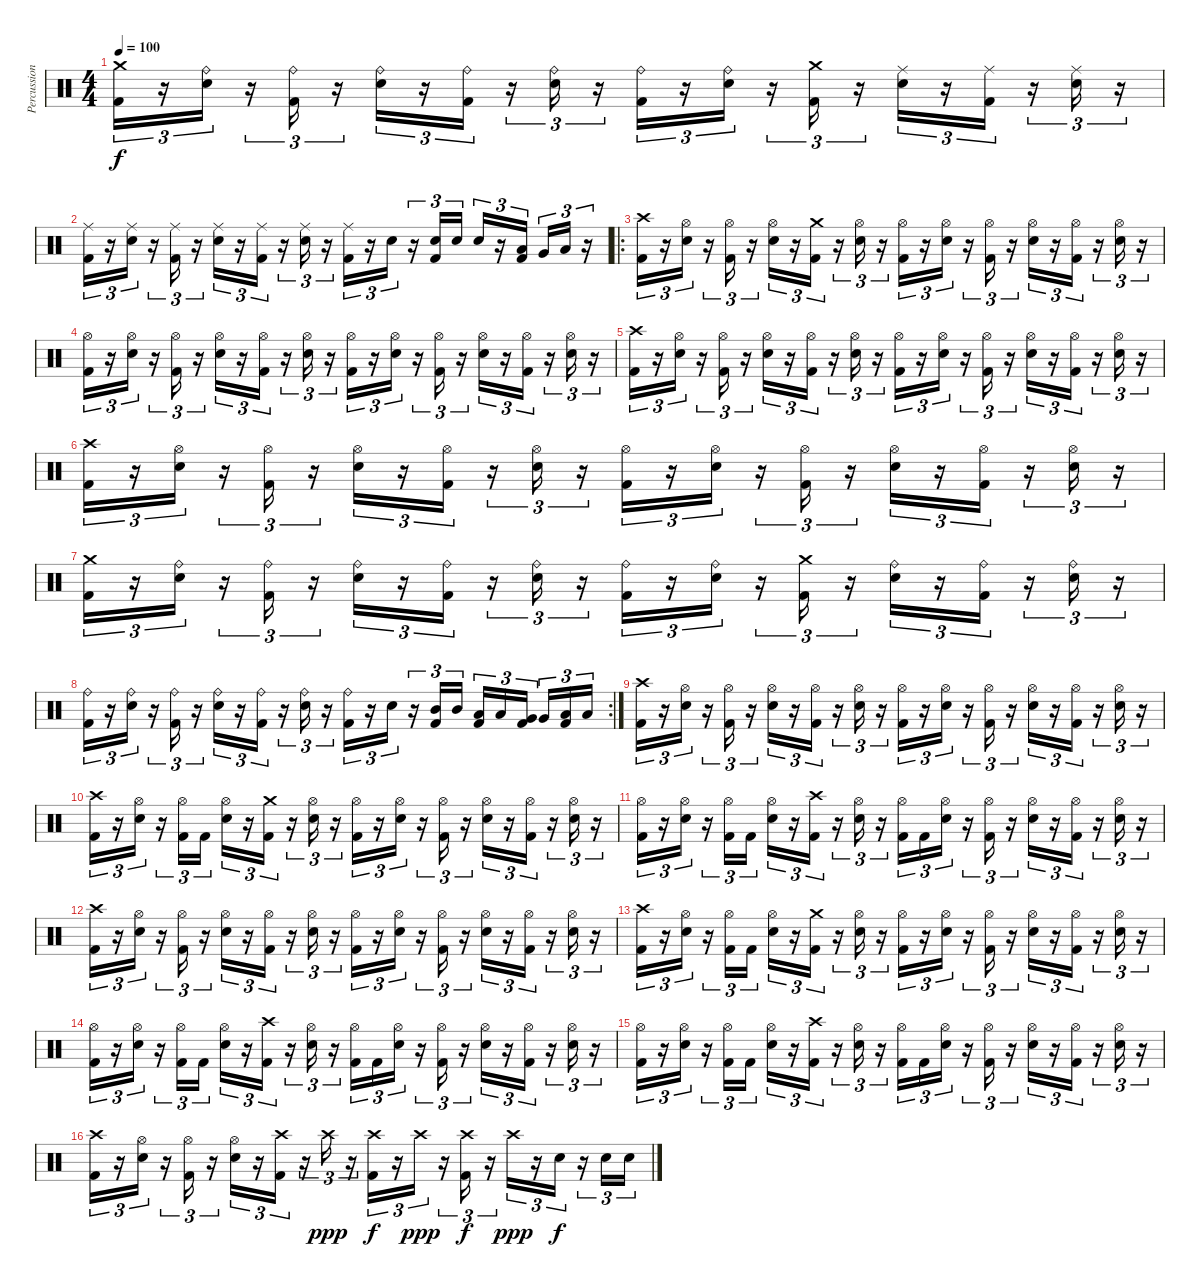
\track ("Percussion" "Percussion") {instrument percussion}
\staff {score}
\articulation defaults
\ts (4 4)
\tempo 100
\clef neutral
\ks c
("Crash medium (hit)" "Kick (hit) 2").16{tu (3 2) dy f} r.16{tu (3 2)} ("Ride (bell)" "Snare (hit) 2").16{tu (3 2)} r.16{tu (3 2)} ("Kick (hit) 2" "Ride (bell)").16{tu (3 2)} r.16{tu (3 2)} ("Snare (hit) 2" "Ride (bell)").16{tu (3 2)} r.16{tu (3 2)} ("Kick (hit) 2" "Ride (bell)").16{tu (3 2)} r.16{tu (3 2)} ("Ride (bell)" "Snare (hit) 2").16{tu (3 2)} r.16{tu (3 2)} ("Kick (hit) 2" "Ride (bell)").16{tu (3 2)} r.16{tu (3 2)} ("Ride (bell)" "Snare (hit) 2").16{tu (3 2)} r.16{tu (3 2)} ("Kick (hit) 2" "Crash medium (hit)").16{tu (3 2)} r.16{tu (3 2)} ("Ride (middle)" "Snare (hit) 2").16{tu (3 2)} r.16{tu (3 2)} ("Kick (hit) 2" "Ride (middle)").16{tu (3 2)} r.16{tu (3 2)} ("Ride (middle)" "Snare (hit) 2").16{tu (3 2)} r.16{tu (3 2)} |
("Ride (middle)" "Kick (hit) 2").16{tu (3 2)} r.16{tu (3 2)} ("Ride (middle)" "Snare (hit) 2").16{tu (3 2)} r.16{tu (3 2)} ("Kick (hit) 2" "Ride (middle)").16{tu (3 2)} r.16{tu (3 2)} ("Snare (hit) 2" "Ride (middle)").16{tu (3 2)} r.16{tu (3 2)} ("Kick (hit) 2" "Ride (middle)").16{tu (3 2)} r.16{tu (3 2)} ("Ride (middle)" "Snare (hit) 2").16{tu (3 2)} r.16{tu (3 2)} ("Kick (hit) 2" "Ride (middle)").16{tu (3 2)} r.16{tu (3 2)} "Snare (hit) 2".16{tu (3 2)} r.16{tu (3 2)} ("Snare (hit) 2" "Kick (hit) 2").16{tu (3 2)} "Snare (hit) 2".16{tu (3 2)} "Snare (hit) 2".16{tu (3 2)} r.16{tu (3 2)} ("Low Tom (hit)" "Kick (hit) 2").16{tu (3 2) beam splitsecondary} "Very Low Tom (hit)".16{tu (3 2)} "Low Floor Tom (hit)".16{tu (3 2)} r.16{tu (3 2)} |
\ro
("Crash high (hit)" "Kick (hit) 2").16{tu (3 2)} r.16{tu (3 2)} ("Hi-Hat (open)" "Snare (hit) 2").16{tu (3 2)} r.16{tu (3 2)} ("Kick (hit) 2" "Hi-Hat (open)").16{tu (3 2)} r.16{tu (3 2)} ("Snare (hit) 2" "Hi-Hat (open)").16{tu (3 2)} r.16{tu (3 2)} ("Kick (hit) 2" "Crash medium (hit)").16{tu (3 2)} r.16{tu (3 2)} ("Hi-Hat (open)" "Snare (hit) 2").16{tu (3 2)} r.16{tu (3 2)} ("Kick (hit) 2" "Hi-Hat (open)").16{tu (3 2)} r.16{tu (3 2)} ("Hi-Hat (open)" "Snare (hit) 2").16{tu (3 2)} r.16{tu (3 2)} ("Kick (hit) 2" "Hi-Hat (open)").16{tu (3 2)} r.16{tu (3 2)} ("Hi-Hat (open)" "Snare (hit) 2").16{tu (3 2)} r.16{tu (3 2)} ("Kick (hit) 2" "Hi-Hat (open)").16{tu (3 2)} r.16{tu (3 2)} ("Hi-Hat (open)" "Snare (hit) 2").16{tu (3 2)} r.16{tu (3 2)} |
("Hi-Hat (open)" "Kick (hit) 2").16{tu (3 2)} r.16{tu (3 2)} ("Hi-Hat (open)" "Snare (hit) 2").16{tu (3 2)} r.16{tu (3 2)} ("Kick (hit) 2" "Hi-Hat (open)").16{tu (3 2)} r.16{tu (3 2)} ("Snare (hit) 2" "Hi-Hat (open)").16{tu (3 2)} r.16{tu (3 2)} ("Kick (hit) 2" "Hi-Hat (open)").16{tu (3 2)} r.16{tu (3 2)} ("Hi-Hat (open)" "Snare (hit) 2").16{tu (3 2)} r.16{tu (3 2)} ("Kick (hit) 2" "Hi-Hat (open)").16{tu (3 2)} r.16{tu (3 2)} ("Hi-Hat (open)" "Snare (hit) 2").16{tu (3 2)} r.16{tu (3 2)} ("Kick (hit) 2" "Hi-Hat (open)").16{tu (3 2)} r.16{tu (3 2)} ("Hi-Hat (open)" "Snare (hit) 2").16{tu (3 2)} r.16{tu (3 2)} ("Kick (hit) 2" "Hi-Hat (open)").16{tu (3 2)} r.16{tu (3 2)} ("Hi-Hat (open)" "Snare (hit) 2").16{tu (3 2)} r.16{tu (3 2)} |
("Crash high (hit)" "Kick (hit) 2").16{tu (3 2)} r.16{tu (3 2)} ("Hi-Hat (open)" "Snare (hit) 2").16{tu (3 2)} r.16{tu (3 2)} ("Kick (hit) 2" "Hi-Hat (open)").16{tu (3 2)} r.16{tu (3 2)} ("Snare (hit) 2" "Hi-Hat (open)").16{tu (3 2)} r.16{tu (3 2)} ("Kick (hit) 2" "Hi-Hat (open)").16{tu (3 2)} r.16{tu (3 2)} ("Hi-Hat (open)" "Snare (hit) 2").16{tu (3 2)} r.16{tu (3 2)} ("Kick (hit) 2" "Hi-Hat (open)").16{tu (3 2)} r.16{tu (3 2)} ("Hi-Hat (open)" "Snare (hit) 2").16{tu (3 2)} r.16{tu (3 2)} ("Kick (hit) 2" "Hi-Hat (open)").16{tu (3 2)} r.16{tu (3 2)} ("Hi-Hat (open)" "Snare (hit) 2").16{tu (3 2)} r.16{tu (3 2)} ("Kick (hit) 2" "Hi-Hat (open)").16{tu (3 2)} r.16{tu (3 2)} ("Hi-Hat (open)" "Snare (hit) 2").16{tu (3 2)} r.16{tu (3 2)} |
("Crash high (hit)" "Kick (hit) 2").16{tu (3 2)} r.16{tu (3 2)} ("Hi-Hat (open)" "Snare (hit) 2").16{tu (3 2)} r.16{tu (3 2)} ("Kick (hit) 2" "Hi-Hat (open)").16{tu (3 2)} r.16{tu (3 2)} ("Snare (hit) 2" "Hi-Hat (open)").16{tu (3 2)} r.16{tu (3 2)} ("Kick (hit) 2" "Hi-Hat (open)").16{tu (3 2)} r.16{tu (3 2)} ("Hi-Hat (open)" "Snare (hit) 2").16{tu (3 2)} r.16{tu (3 2)} ("Kick (hit) 2" "Hi-Hat (open)").16{tu (3 2)} r.16{tu (3 2)} ("Hi-Hat (open)" "Snare (hit) 2").16{tu (3 2)} r.16{tu (3 2)} ("Kick (hit) 2" "Hi-Hat (open)").16{tu (3 2)} r.16{tu (3 2)} ("Hi-Hat (open)" "Snare (hit) 2").16{tu (3 2)} r.16{tu (3 2)} ("Kick (hit) 2" "Hi-Hat (open)").16{tu (3 2)} r.16{tu (3 2)} ("Hi-Hat (open)" "Snare (hit) 2").16{tu (3 2)} r.16{tu (3 2)} |
("Crash medium (hit)" "Kick (hit) 2").16{tu (3 2)} r.16{tu (3 2)} ("Ride (bell)" "Snare (hit) 2").16{tu (3 2)} r.16{tu (3 2)} ("Kick (hit) 2" "Ride (bell)").16{tu (3 2)} r.16{tu (3 2)} ("Snare (hit) 2" "Ride (bell)").16{tu (3 2)} r.16{tu (3 2)} ("Kick (hit) 2" "Ride (bell)").16{tu (3 2)} r.16{tu (3 2)} ("Ride (bell)" "Snare (hit) 2").16{tu (3 2)} r.16{tu (3 2)} ("Kick (hit) 2" "Ride (bell)").16{tu (3 2)} r.16{tu (3 2)} ("Ride (bell)" "Snare (hit) 2").16{tu (3 2)} r.16{tu (3 2)} ("Kick (hit) 2" "Crash medium (hit)").16{tu (3 2)} r.16{tu (3 2)} ("Ride (bell)" "Snare (hit) 2").16{tu (3 2)} r.16{tu (3 2)} ("Kick (hit) 2" "Ride (bell)").16{tu (3 2)} r.16{tu (3 2)} ("Ride (bell)" "Snare (hit) 2").16{tu (3 2)} r.16{tu (3 2)} |
\rc 2
("Ride (bell)" "Kick (hit) 2").16{tu (3 2)} r.16{tu (3 2)} ("Ride (bell)" "Snare (hit) 2").16{tu (3 2)} r.16{tu (3 2)} ("Kick (hit) 2" "Ride (bell)").16{tu (3 2)} r.16{tu (3 2)} ("Snare (hit) 2" "Ride (bell)").16{tu (3 2)} r.16{tu (3 2)} ("Kick (hit) 2" "Ride (bell)").16{tu (3 2)} r.16{tu (3 2)} ("Ride (bell)" "Snare (hit) 2").16{tu (3 2)} r.16{tu (3 2)} ("Kick (hit) 2" "Ride (bell)").16{tu (3 2)} r.16{tu (3 2)} "Snare (hit) 2".16{tu (3 2)} r.16{tu (3 2)} ("Mid Tom (hit)" "Kick (hit) 2").16{tu (3 2)} "Mid Tom (hit)".16{tu (3 2)} ("Low Tom (hit)" "Kick (hit) 2").16{tu (3 2)} "Low Tom (hit)".16{tu (3 2)} ("Very Low Tom (hit)" "Kick (hit) 2").16{tu (3 2) beam splitsecondary} "Very Low Tom (hit)".16{tu (3 2)} ("Low Floor Tom (hit)" "Kick (hit) 2").16{tu (3 2)} "Low Floor Tom (hit)".16{tu (3 2)} |
("Crash high (hit)" "Kick (hit) 2").16{tu (3 2)} r.16{tu (3 2)} ("Hi-Hat (open)" "Snare (hit) 2").16{tu (3 2)} r.16{tu (3 2)} ("Kick (hit) 2" "Hi-Hat (open)").16{tu (3 2)} r.16{tu (3 2)} ("Snare (hit) 2" "Hi-Hat (open)").16{tu (3 2)} r.16{tu (3 2)} ("Kick (hit) 2" "Hi-Hat (open)").16{tu (3 2)} r.16{tu (3 2)} ("Hi-Hat (open)" "Snare (hit) 2").16{tu (3 2)} r.16{tu (3 2)} ("Kick (hit) 2" "Hi-Hat (open)").16{tu (3 2)} r.16{tu (3 2)} ("Hi-Hat (open)" "Snare (hit) 2").16{tu (3 2)} r.16{tu (3 2)} ("Kick (hit) 2" "Hi-Hat (open)").16{tu (3 2)} r.16{tu (3 2)} ("Hi-Hat (open)" "Snare (hit) 2").16{tu (3 2)} r.16{tu (3 2)} ("Kick (hit) 2" "Hi-Hat (open)").16{tu (3 2)} r.16{tu (3 2)} ("Hi-Hat (open)" "Snare (hit) 2").16{tu (3 2)} r.16{tu (3 2)} |
("Crash high (hit)" "Kick (hit) 2").16{tu (3 2)} r.16{tu (3 2)} ("Hi-Hat (open)" "Snare (hit) 2").16{tu (3 2)} r.16{tu (3 2)} ("Kick (hit) 2" "Hi-Hat (open)").16{tu (3 2)} "Kick (hit) 2".16{tu (3 2)} ("Snare (hit) 2" "Hi-Hat (open)").16{tu (3 2)} r.16{tu (3 2)} ("Kick (hit) 2" "Crash medium (hit)").16{tu (3 2)} r.16{tu (3 2)} ("Hi-Hat (open)" "Snare (hit) 2").16{tu (3 2)} r.16{tu (3 2)} ("Kick (hit) 2" "Hi-Hat (open)").16{tu (3 2)} r.16{tu (3 2)} ("Hi-Hat (open)" "Snare (hit) 2").16{tu (3 2)} r.16{tu (3 2)} ("Kick (hit) 2" "Hi-Hat (open)").16{tu (3 2)} r.16{tu (3 2)} ("Hi-Hat (open)" "Snare (hit) 2").16{tu (3 2)} r.16{tu (3 2)} ("Kick (hit) 2" "Hi-Hat (open)").16{tu (3 2)} r.16{tu (3 2)} ("Hi-Hat (open)" "Snare (hit) 2").16{tu (3 2)} r.16{tu (3 2)} |
("Hi-Hat (open)" "Kick (hit) 2").16{tu (3 2)} r.16{tu (3 2)} ("Hi-Hat (open)" "Snare (hit) 2").16{tu (3 2)} r.16{tu (3 2)} ("Kick (hit) 2" "Hi-Hat (open)").16{tu (3 2)} "Kick (hit) 2".16{tu (3 2)} ("Snare (hit) 2" "Hi-Hat (open)").16{tu (3 2)} r.16{tu (3 2)} ("Crash high (hit)" "Kick (hit) 2").16{tu (3 2)} r.16{tu (3 2)} ("Hi-Hat (open)" "Snare (hit) 2").16{tu (3 2)} r.16{tu (3 2)} ("Kick (hit) 2" "Hi-Hat (open)").16{tu (3 2)} "Kick (hit) 2".16{tu (3 2)} ("Hi-Hat (open)" "Snare (hit) 2").16{tu (3 2)} r.16{tu (3 2)} ("Kick (hit) 2" "Hi-Hat (open)").16{tu (3 2)} r.16{tu (3 2)} ("Hi-Hat (open)" "Snare (hit) 2").16{tu (3 2)} r.16{tu (3 2)} ("Kick (hit) 2" "Hi-Hat (open)").16{tu (3 2)} r.16{tu (3 2)} ("Hi-Hat (open)" "Snare (hit) 2").16{tu (3 2)} r.16{tu (3 2)} |
("Crash high (hit)" "Kick (hit) 2").16{tu (3 2)} r.16{tu (3 2)} ("Hi-Hat (open)" "Snare (hit) 2").16{tu (3 2)} r.16{tu (3 2)} ("Kick (hit) 2" "Hi-Hat (open)").16{tu (3 2)} r.16{tu (3 2)} ("Snare (hit) 2" "Hi-Hat (open)").16{tu (3 2)} r.16{tu (3 2)} ("Kick (hit) 2" "Hi-Hat (open)").16{tu (3 2)} r.16{tu (3 2)} ("Hi-Hat (open)" "Snare (hit) 2").16{tu (3 2)} r.16{tu (3 2)} ("Kick (hit) 2" "Hi-Hat (open)").16{tu (3 2)} r.16{tu (3 2)} ("Hi-Hat (open)" "Snare (hit) 2").16{tu (3 2)} r.16{tu (3 2)} ("Kick (hit) 2" "Hi-Hat (open)").16{tu (3 2)} r.16{tu (3 2)} ("Hi-Hat (open)" "Snare (hit) 2").16{tu (3 2)} r.16{tu (3 2)} ("Kick (hit) 2" "Hi-Hat (open)").16{tu (3 2)} r.16{tu (3 2)} ("Hi-Hat (open)" "Snare (hit) 2").16{tu (3 2)} r.16{tu (3 2)} |
("Crash high (hit)" "Kick (hit) 2").16{tu (3 2)} r.16{tu (3 2)} ("Hi-Hat (open)" "Snare (hit) 2").16{tu (3 2)} r.16{tu (3 2)} ("Kick (hit) 2" "Hi-Hat (open)").16{tu (3 2)} "Kick (hit) 2".16{tu (3 2)} ("Snare (hit) 2" "Hi-Hat (open)").16{tu (3 2)} r.16{tu (3 2)} ("Kick (hit) 2" "Crash medium (hit)").16{tu (3 2)} r.16{tu (3 2)} ("Hi-Hat (open)" "Snare (hit) 2").16{tu (3 2)} r.16{tu (3 2)} ("Kick (hit) 2" "Hi-Hat (open)").16{tu (3 2)} r.16{tu (3 2)} ("Hi-Hat (open)" "Snare (hit) 2").16{tu (3 2)} r.16{tu (3 2)} ("Kick (hit) 2" "Hi-Hat (open)").16{tu (3 2)} r.16{tu (3 2)} ("Hi-Hat (open)" "Snare (hit) 2").16{tu (3 2)} r.16{tu (3 2)} ("Kick (hit) 2" "Hi-Hat (open)").16{tu (3 2)} r.16{tu (3 2)} ("Hi-Hat (open)" "Snare (hit) 2").16{tu (3 2)} r.16{tu (3 2)} |
("Hi-Hat (open)" "Kick (hit) 2").16{tu (3 2)} r.16{tu (3 2)} ("Hi-Hat (open)" "Snare (hit) 2").16{tu (3 2)} r.16{tu (3 2)} ("Kick (hit) 2" "Hi-Hat (open)").16{tu (3 2)} "Kick (hit) 2".16{tu (3 2)} ("Snare (hit) 2" "Hi-Hat (open)").16{tu (3 2)} r.16{tu (3 2)} ("Crash high (hit)" "Kick (hit) 2").16{tu (3 2)} r.16{tu (3 2)} ("Hi-Hat (open)" "Snare (hit) 2").16{tu (3 2)} r.16{tu (3 2)} ("Kick (hit) 2" "Hi-Hat (open)").16{tu (3 2)} "Kick (hit) 2".16{tu (3 2)} ("Hi-Hat (open)" "Snare (hit) 2").16{tu (3 2)} r.16{tu (3 2)} ("Kick (hit) 2" "Hi-Hat (open)").16{tu (3 2)} r.16{tu (3 2)} ("Hi-Hat (open)" "Snare (hit) 2").16{tu (3 2)} r.16{tu (3 2)} ("Kick (hit) 2" "Hi-Hat (open)").16{tu (3 2)} r.16{tu (3 2)} ("Hi-Hat (open)" "Snare (hit) 2").16{tu (3 2)} r.16{tu (3 2)} |
("Hi-Hat (open)" "Kick (hit) 2").16{tu (3 2)} r.16{tu (3 2)} ("Hi-Hat (open)" "Snare (hit) 2").16{tu (3 2)} r.16{tu (3 2)} ("Kick (hit) 2" "Hi-Hat (open)").16{tu (3 2)} "Kick (hit) 2".16{tu (3 2)} ("Snare (hit) 2" "Hi-Hat (open)").16{tu (3 2)} r.16{tu (3 2)} ("Crash high (hit)" "Kick (hit) 2").16{tu (3 2)} r.16{tu (3 2)} ("Hi-Hat (open)" "Snare (hit) 2").16{tu (3 2)} r.16{tu (3 2)} ("Kick (hit) 2" "Hi-Hat (open)").16{tu (3 2)} "Kick (hit) 2".16{tu (3 2)} ("Hi-Hat (open)" "Snare (hit) 2").16{tu (3 2)} r.16{tu (3 2)} ("Kick (hit) 2" "Hi-Hat (open)").16{tu (3 2)} r.16{tu (3 2)} ("Hi-Hat (open)" "Snare (hit) 2").16{tu (3 2)} r.16{tu (3 2)} ("Kick (hit) 2" "Hi-Hat (open)").16{tu (3 2)} r.16{tu (3 2)} ("Hi-Hat (open)" "Snare (hit) 2").16{tu (3 2)} r.16{tu (3 2)} |
("Crash high (hit)" "Kick (hit) 2").16{tu (3 2)} r.16{tu (3 2)} ("Hi-Hat (open)" "Snare (hit) 2").16{tu (3 2)} r.16{tu (3 2)} ("Kick (hit) 2" "Hi-Hat (open)").16{tu (3 2)} r.16{tu (3 2)} ("Snare (hit) 2" "Hi-Hat (open)").16{tu (3 2)} r.16{tu (3 2)} ("Kick (hit) 2" "Crash high (hit)").16{tu (3 2)} r.16{tu (3 2)} "Crash high (hit)".16{tu (3 2) dy ppp} r.16{tu (3 2)} ("Kick (hit) 2" "Crash high (hit)").16{tu (3 2) dy f} r.16{tu (3 2)} "Crash high (hit)".16{tu (3 2) dy ppp} r.16{tu (3 2)} ("Kick (hit) 2" "Crash high (hit)").16{tu (3 2) dy f} r.16{tu (3 2)} "Crash high (hit)".16{tu (3 2) dy ppp} r.16{tu (3 2)} "Snare (hit) 2".16{tu (3 2) dy f} r.16{tu (3 2)} "Snare (hit) 2".16{tu (3 2)} "Snare (hit) 2".16{tu (3 2)}
